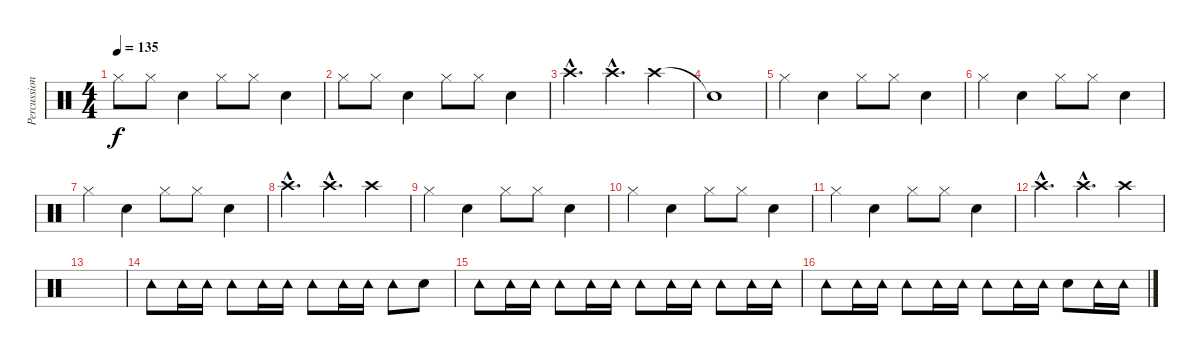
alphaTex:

\track ("Percussion" "Percussion") {instrument percussion}
\staff {score}
\articulation defaults
\ts (4 4)
\tempo 135
\clef neutral
\ks c "Hi-Hat (closed)".8{dy f} "Hi-Hat (closed)".8 "Electric Snare (hit)".4 "Hi-Hat (closed)".8 "Hi-Hat (closed)".8 "Electric Snare (hit)".4
|
"Hi-Hat (closed)".8 "Hi-Hat (closed)".8 "Electric Snare (hit)".4 "Hi-Hat (closed)".8 "Hi-Hat (closed)".8 "Electric Snare (hit)".4 |
"Crash high (hit)"{hac}.4{d} "Crash high (hit)"{hac}.4{d} "Crash high (hit)".4 |
"Snare (hit)"{t}.1 |
"Hi-Hat (closed)".4 "Electric Snare (hit)".4 "Hi-Hat (closed)".8 "Hi-Hat (closed)".8 "Electric Snare (hit)".4 |
"Hi-Hat (closed)".4 "Electric Snare (hit)".4 "Hi-Hat (closed)".8 "Hi-Hat (closed)".8 "Electric Snare (hit)".4 |
"Hi-Hat (closed)".4 "Electric Snare (hit)".4 "Hi-Hat (closed)".8 "Hi-Hat (closed)".8 "Electric Snare (hit)".4 |
"Crash high (hit)"{hac}.4{d} "Crash high (hit)"{hac}.4{d} "Crash high (hit)".4 |
"Hi-Hat (closed)".4 "Electric Snare (hit)".4 "Hi-Hat (closed)".8 "Hi-Hat (closed)".8 "Electric Snare (hit)".4 |
"Hi-Hat (closed)".4 "Electric Snare (hit)".4 "Hi-Hat (closed)".8 "Hi-Hat (closed)".8 "Electric Snare (hit)".4 |
"Hi-Hat (closed)".4 "Electric Snare (hit)".4 "Hi-Hat (closed)".8 "Hi-Hat (closed)".8 "Electric Snare (hit)".4 |
"Crash high (hit)"{hac}.4{d} "Crash high (hit)"{hac}.4{d} "Crash high (hit)".4 |
|
"Tambourine (hit)".8 "Tambourine (hit)".16 "Tambourine (hit)".16 "Tambourine (hit)".8 "Tambourine (hit)".16 "Tambourine (hit)".16 "Tambourine (hit)".8 "Tambourine (hit)".16 "Tambourine (hit)".16 "Tambourine (hit)".8 "Electric Snare (hit)".8 |
"Tambourine (hit)".8 "Tambourine (hit)".16 "Tambourine (hit)".16 "Tambourine (hit)".8 "Tambourine (hit)".16 "Tambourine (hit)".16 "Tambourine (hit)".8 "Tambourine (hit)".16 "Tambourine (hit)".16 "Tambourine (hit)".8 "Tambourine (hit)".16 "Tambourine (hit)".16 |
"Tambourine (hit)".8 "Tambourine (hit)".16 "Tambourine (hit)".16 "Tambourine (hit)".8 "Tambourine (hit)".16 "Tambourine (hit)".16 "Tambourine (hit)".8 "Tambourine (hit)".16 "Tambourine (hit)".16 "Electric Snare (hit)".8 "Tambourine (hit)".16 "Tambourine (hit)".16
